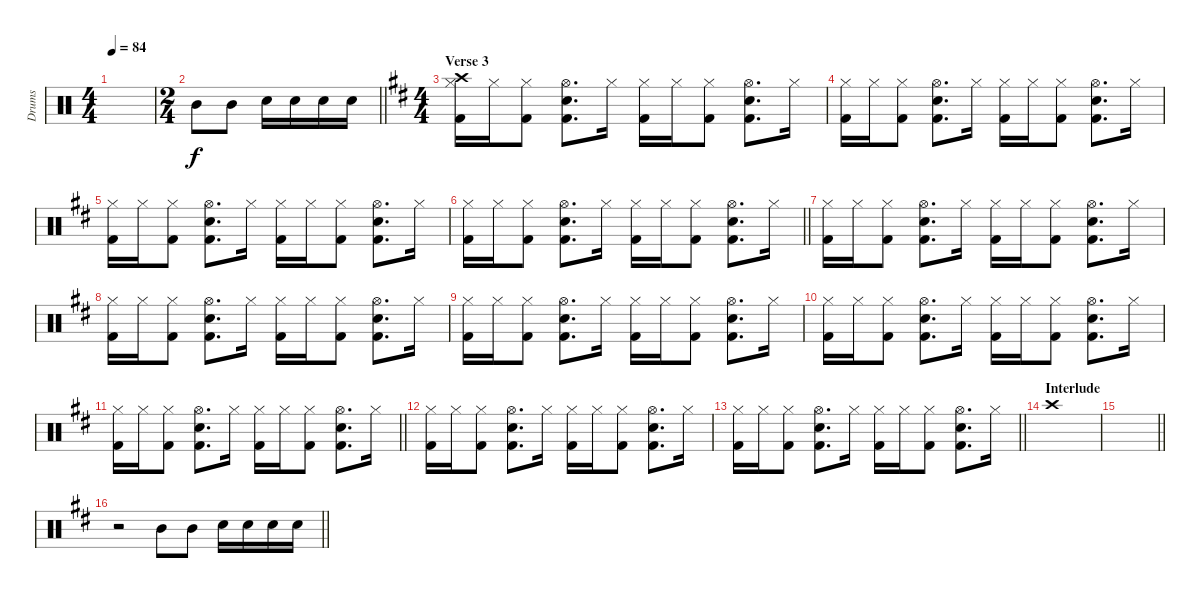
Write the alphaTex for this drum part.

\track ("Drums" "Drums") {instrument percussion}
\staff {score}
\articulation defaults
\ts (4 4)
\tempo 84
\clef neutral
\ks c
|
\ts (2 4)
\barLineRight lightlight "Mid Tom (hit)".8 "Mid Tom (hit)".8 "Snare (hit) 2".16 "Snare (hit) 2".16 "Snare (hit) 2".16 "Snare (hit) 2".16
|
\ts (4 4)
\section ("" "Verse 3")
\ks d
("Kick (hit) 2" "Hi-Hat (closed)" "Crash high (hit)").16 "Hi-Hat (closed)".16 ("Kick (hit) 2" "Hi-Hat (closed)").8 ("Kick (hit) 2" "Hi-Hat (open)" "Snare (hit) 2").8{d} "Hi-Hat (closed)".16 ("Kick (hit) 2" "Hi-Hat (closed)").16 "Hi-Hat (closed)".16 ("Kick (hit) 2" "Hi-Hat (closed)").8 ("Kick (hit) 2" "Hi-Hat (open)" "Snare (hit) 2").8{d} "Hi-Hat (closed)".16 |
("Kick (hit) 2" "Hi-Hat (closed)").16 "Hi-Hat (closed)".16 ("Kick (hit) 2" "Hi-Hat (closed)").8 ("Kick (hit) 2" "Hi-Hat (open)" "Snare (hit) 2").8{d} "Hi-Hat (closed)".16 ("Kick (hit) 2" "Hi-Hat (closed)").16 "Hi-Hat (closed)".16 ("Kick (hit) 2" "Hi-Hat (closed)").8 ("Kick (hit) 2" "Hi-Hat (open)" "Snare (hit) 2").8{d} "Hi-Hat (closed)".16 |
("Kick (hit) 2" "Hi-Hat (closed)").16 "Hi-Hat (closed)".16 ("Kick (hit) 2" "Hi-Hat (closed)").8 ("Kick (hit) 2" "Hi-Hat (open)" "Snare (hit) 2").8{d} "Hi-Hat (closed)".16 ("Kick (hit) 2" "Hi-Hat (closed)").16 "Hi-Hat (closed)".16 ("Kick (hit) 2" "Hi-Hat (closed)").8 ("Kick (hit) 2" "Hi-Hat (open)" "Snare (hit) 2").8{d} "Hi-Hat (closed)".16 |
\barLineRight lightlight
("Kick (hit) 2" "Hi-Hat (closed)").16 "Hi-Hat (closed)".16 ("Kick (hit) 2" "Hi-Hat (closed)").8 ("Kick (hit) 2" "Hi-Hat (open)" "Snare (hit) 2").8{d} "Hi-Hat (closed)".16 ("Kick (hit) 2" "Hi-Hat (closed)").16 "Hi-Hat (closed)".16 ("Kick (hit) 2" "Hi-Hat (closed)").8 ("Kick (hit) 2" "Hi-Hat (open)" "Snare (hit) 2").8{d} "Hi-Hat (closed)".16 |
("Kick (hit) 2" "Hi-Hat (closed)").16 "Hi-Hat (closed)".16 ("Kick (hit) 2" "Hi-Hat (closed)").8 ("Kick (hit) 2" "Hi-Hat (open)" "Snare (hit) 2").8{d} "Hi-Hat (closed)".16 ("Kick (hit) 2" "Hi-Hat (closed)").16 "Hi-Hat (closed)".16 ("Kick (hit) 2" "Hi-Hat (closed)").8 ("Kick (hit) 2" "Hi-Hat (open)" "Snare (hit) 2").8{d} "Hi-Hat (closed)".16 |
("Kick (hit) 2" "Hi-Hat (closed)").16 "Hi-Hat (closed)".16 ("Kick (hit) 2" "Hi-Hat (closed)").8 ("Kick (hit) 2" "Hi-Hat (open)" "Snare (hit) 2").8{d} "Hi-Hat (closed)".16 ("Kick (hit) 2" "Hi-Hat (closed)").16 "Hi-Hat (closed)".16 ("Kick (hit) 2" "Hi-Hat (closed)").8 ("Kick (hit) 2" "Hi-Hat (open)" "Snare (hit) 2").8{d} "Hi-Hat (closed)".16 |
("Kick (hit) 2" "Hi-Hat (closed)").16 "Hi-Hat (closed)".16 ("Kick (hit) 2" "Hi-Hat (closed)").8 ("Kick (hit) 2" "Hi-Hat (open)" "Snare (hit) 2").8{d} "Hi-Hat (closed)".16 ("Kick (hit) 2" "Hi-Hat (closed)").16 "Hi-Hat (closed)".16 ("Kick (hit) 2" "Hi-Hat (closed)").8 ("Kick (hit) 2" "Hi-Hat (open)" "Snare (hit) 2").8{d} "Hi-Hat (closed)".16 |
("Kick (hit) 2" "Hi-Hat (closed)").16 "Hi-Hat (closed)".16 ("Kick (hit) 2" "Hi-Hat (closed)").8 ("Kick (hit) 2" "Hi-Hat (open)" "Snare (hit) 2").8{d} "Hi-Hat (closed)".16 ("Kick (hit) 2" "Hi-Hat (closed)").16 "Hi-Hat (closed)".16 ("Kick (hit) 2" "Hi-Hat (closed)").8 ("Kick (hit) 2" "Hi-Hat (open)" "Snare (hit) 2").8{d} "Hi-Hat (closed)".16 |
\barLineRight lightlight
("Kick (hit) 2" "Hi-Hat (closed)").16 "Hi-Hat (closed)".16 ("Kick (hit) 2" "Hi-Hat (closed)").8 ("Kick (hit) 2" "Hi-Hat (open)" "Snare (hit) 2").8{d} "Hi-Hat (closed)".16 ("Kick (hit) 2" "Hi-Hat (closed)").16 "Hi-Hat (closed)".16 ("Kick (hit) 2" "Hi-Hat (closed)").8 ("Kick (hit) 2" "Hi-Hat (open)" "Snare (hit) 2").8{d} "Hi-Hat (closed)".16 |
("Kick (hit) 2" "Hi-Hat (closed)").16 "Hi-Hat (closed)".16 ("Kick (hit) 2" "Hi-Hat (closed)").8 ("Kick (hit) 2" "Hi-Hat (open)" "Snare (hit) 2").8{d} "Hi-Hat (closed)".16 ("Kick (hit) 2" "Hi-Hat (closed)").16 "Hi-Hat (closed)".16 ("Kick (hit) 2" "Hi-Hat (closed)").8 ("Kick (hit) 2" "Hi-Hat (open)" "Snare (hit) 2").8{d} "Hi-Hat (closed)".16 |
\barLineRight lightlight
("Kick (hit) 2" "Hi-Hat (closed)").16 "Hi-Hat (closed)".16 ("Kick (hit) 2" "Hi-Hat (closed)").8 ("Kick (hit) 2" "Hi-Hat (open)" "Snare (hit) 2").8{d} "Hi-Hat (closed)".16 ("Kick (hit) 2" "Hi-Hat (closed)").16 "Hi-Hat (closed)".16 ("Kick (hit) 2" "Hi-Hat (closed)").8 ("Kick (hit) 2" "Hi-Hat (open)" "Snare (hit) 2").8{d} "Hi-Hat (closed)".16 |
\section ("" "Interlude")
"Crash high (hit)".1 |
\barLineRight lightlight
|
\barLineRight lightlight
r.2 "Mid Tom (hit)".8 "Mid Tom (hit)".8 "Snare (hit) 2".16 "Snare (hit) 2".16 "Snare (hit) 2".16 "Snare (hit) 2".16
